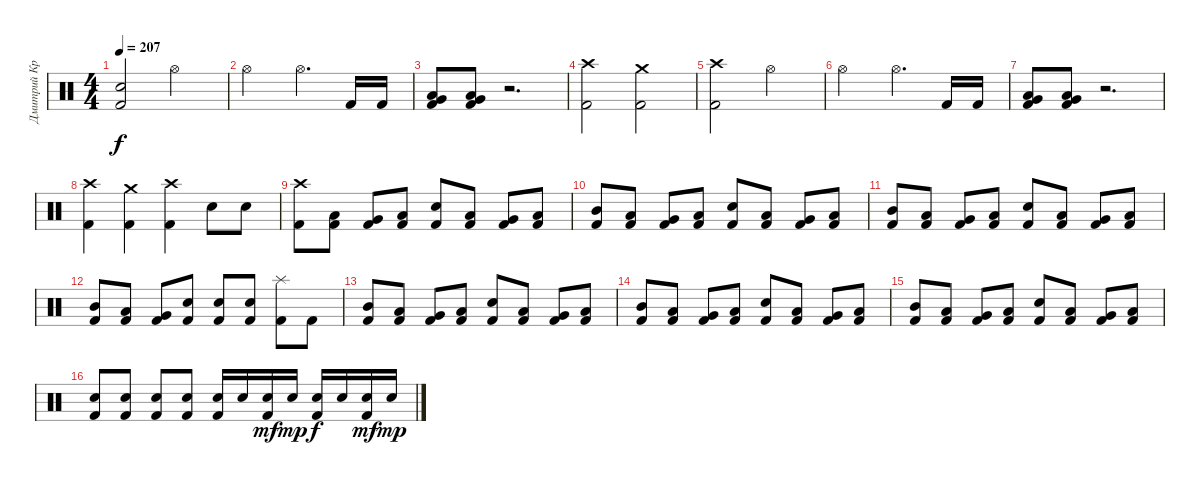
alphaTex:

\track ("Дмитрий Кривенков" "Дмитрий Кр") {instrument percussion}
\staff {score}
\articulation defaults
\ts (4 4)
\tempo 207
\clef neutral
\ks c
("Electric Snare (hit)" "Kick (hit) 2").2{dy f} "Hi-Hat (open)".2 |
"Hi-Hat (open)".2 "Hi-Hat (open)".4{d} "Kick (hit) 2".16 "Kick (hit) 2".16 |
("Very Low Tom (hit)" "Low Floor Tom (hit)" "Kick (hit) 2").8 ("Very Low Tom (hit)" "Low Floor Tom (hit)" "Kick (hit) 2").8 r.2{d} |
("Crash high (hit)" "Kick (hit) 2").2 ("Crash medium (hit)" "Kick (hit) 2").2 |
("Crash high (hit)" "Kick (hit) 2").2 "Hi-Hat (open)".2 |
"Hi-Hat (open)".2 "Hi-Hat (open)".4{d} "Kick (hit) 2".16 "Kick (hit) 2".16 |
("Very Low Tom (hit)" "Low Floor Tom (hit)" "Kick (hit) 2").8 ("Very Low Tom (hit)" "Low Floor Tom (hit)" "Kick (hit) 2").8 r.2{d} |
("Crash high (hit)" "Kick (hit) 2").4 ("Crash medium (hit)" "Kick (hit) 2").4 ("Crash high (hit)" "Kick (hit) 2").4 "Electric Snare (hit)".8 "Electric Snare (hit)".8 |
("Crash high (hit)" "Kick (hit) 2").8 ("Low Tom (hit)" "Kick (hit) 2").8 ("Very Low Tom (hit)" "Kick (hit) 2").8 ("Low Floor Tom (hit)" "Kick (hit) 2").8 ("Electric Snare (hit)" "Kick (hit) 2").8 ("Low Tom (hit)" "Kick (hit) 2").8 ("Very Low Tom (hit)" "Kick (hit) 2").8 ("Low Floor Tom (hit)" "Kick (hit) 2").8 |
("Mid Tom (hit)" "Kick (hit) 2").8 ("Low Tom (hit)" "Kick (hit) 2").8 ("Very Low Tom (hit)" "Kick (hit) 2").8 ("Low Floor Tom (hit)" "Kick (hit) 2").8 ("Electric Snare (hit)" "Kick (hit) 2").8 ("Low Tom (hit)" "Kick (hit) 2").8 ("Very Low Tom (hit)" "Kick (hit) 2").8 ("Low Floor Tom (hit)" "Kick (hit) 2").8 |
("Mid Tom (hit)" "Kick (hit) 2").8 ("Low Tom (hit)" "Kick (hit) 2").8 ("Very Low Tom (hit)" "Kick (hit) 2").8 ("Low Floor Tom (hit)" "Kick (hit) 2").8 ("Electric Snare (hit)" "Kick (hit) 2").8 ("Low Tom (hit)" "Kick (hit) 2").8 ("Very Low Tom (hit)" "Kick (hit) 2").8 ("Low Floor Tom (hit)" "Kick (hit) 2").8 |
("Mid Tom (hit)" "Kick (hit) 2").8 ("Low Tom (hit)" "Kick (hit) 2").8 ("Very Low Tom (hit)" "Kick (hit) 2").8 ("Electric Snare (hit)" "Kick (hit) 2").8 ("Electric Snare (hit)" "Kick (hit) 2").8 ("Electric Snare (hit)" "Kick (hit) 2").8 ("Splash (hit)" "Kick (hit) 2").8 "Kick (hit) 2".8 |
("Mid Tom (hit)" "Kick (hit) 2").8 ("Low Tom (hit)" "Kick (hit) 2").8 ("Very Low Tom (hit)" "Kick (hit) 2").8 ("Low Floor Tom (hit)" "Kick (hit) 2").8 ("Electric Snare (hit)" "Kick (hit) 2").8 ("Low Tom (hit)" "Kick (hit) 2").8 ("Very Low Tom (hit)" "Kick (hit) 2").8 ("Low Floor Tom (hit)" "Kick (hit) 2").8 |
("Mid Tom (hit)" "Kick (hit) 2").8 ("Low Tom (hit)" "Kick (hit) 2").8 ("Very Low Tom (hit)" "Kick (hit) 2").8 ("Low Floor Tom (hit)" "Kick (hit) 2").8 ("Electric Snare (hit)" "Kick (hit) 2").8 ("Low Tom (hit)" "Kick (hit) 2").8 ("Very Low Tom (hit)" "Kick (hit) 2").8 ("Low Floor Tom (hit)" "Kick (hit) 2").8 |
("Mid Tom (hit)" "Kick (hit) 2").8 ("Low Tom (hit)" "Kick (hit) 2").8 ("Very Low Tom (hit)" "Kick (hit) 2").8 ("Low Floor Tom (hit)" "Kick (hit) 2").8 ("Electric Snare (hit)" "Kick (hit) 2").8 ("Low Tom (hit)" "Kick (hit) 2").8 ("Very Low Tom (hit)" "Kick (hit) 2").8 ("Low Floor Tom (hit)" "Kick (hit) 2").8 |
("Electric Snare (hit)" "Kick (hit) 2").8 ("Electric Snare (hit)" "Kick (hit) 2").8 ("Electric Snare (hit)" "Kick (hit) 2").8 ("Electric Snare (hit)" "Kick (hit) 2").8 ("Electric Snare (hit)" "Kick (hit) 2").16 "Electric Snare (hit)".16 ("Electric Snare (hit)" "Kick (hit) 2").16{dy mf} "Electric Snare (hit)".16{dy mp} ("Electric Snare (hit)" "Kick (hit) 2").16{dy f} "Electric Snare (hit)".16 ("Electric Snare (hit)" "Kick (hit) 2").16{dy mf} "Electric Snare (hit)".16{dy mp}
